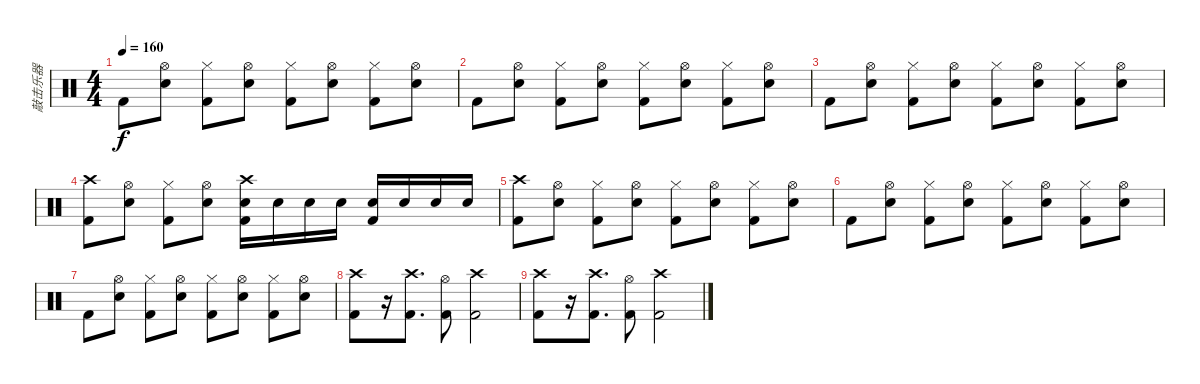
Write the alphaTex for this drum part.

\track ("敲击乐器" "敲击乐器") {instrument percussion}
\staff {score}
\articulation defaults
\ts (4 4)
\tempo 160
\clef neutral
\ks c "Kick (hit) 2".8{dy f}
("Hi-Hat (open)" "Electric Snare (hit)").8 ("Hi-Hat (closed)" "Kick (hit) 2").8 ("Hi-Hat (open)" "Electric Snare (hit)").8 ("Hi-Hat (closed)" "Kick (hit) 2").8 ("Hi-Hat (open)" "Electric Snare (hit)").8 ("Hi-Hat (closed)" "Kick (hit) 2").8 ("Hi-Hat (open)" "Electric Snare (hit)").8 |
"Kick (hit) 2".8 ("Hi-Hat (open)" "Electric Snare (hit)").8 ("Hi-Hat (closed)" "Kick (hit) 2").8 ("Hi-Hat (open)" "Electric Snare (hit)").8 ("Hi-Hat (closed)" "Kick (hit) 2").8 ("Hi-Hat (open)" "Electric Snare (hit)").8 ("Hi-Hat (closed)" "Kick (hit) 2").8 ("Hi-Hat (open)" "Electric Snare (hit)").8 |
"Kick (hit) 2".8 ("Hi-Hat (open)" "Electric Snare (hit)").8 ("Hi-Hat (closed)" "Kick (hit) 2").8 ("Hi-Hat (open)" "Electric Snare (hit)").8 ("Hi-Hat (closed)" "Kick (hit) 2").8 ("Hi-Hat (open)" "Electric Snare (hit)").8 ("Hi-Hat (closed)" "Kick (hit) 2").8 ("Hi-Hat (open)" "Electric Snare (hit)").8 |
("Crash high (hit)" "Kick (hit) 2").8 ("Hi-Hat (open)" "Electric Snare (hit)").8 ("Hi-Hat (closed)" "Kick (hit) 2").8 ("Hi-Hat (open)" "Electric Snare (hit)").8 ("Crash high (hit)" "Electric Snare (hit)" "Kick (hit) 2").16 "Electric Snare (hit)".16 "Electric Snare (hit)".16 "Electric Snare (hit)".16 ("Electric Snare (hit)" "Kick (hit) 2").16 "Electric Snare (hit)".16 "Electric Snare (hit)".16 "Electric Snare (hit)".16 |
("Crash high (hit)" "Kick (hit) 2").8 ("Hi-Hat (open)" "Electric Snare (hit)").8 ("Hi-Hat (closed)" "Kick (hit) 2").8 ("Hi-Hat (open)" "Electric Snare (hit)").8 ("Hi-Hat (closed)" "Kick (hit) 2").8 ("Hi-Hat (open)" "Electric Snare (hit)").8 ("Hi-Hat (closed)" "Kick (hit) 2").8 ("Hi-Hat (open)" "Electric Snare (hit)").8 |
"Kick (hit) 2".8 ("Hi-Hat (open)" "Electric Snare (hit)").8 ("Hi-Hat (closed)" "Kick (hit) 2").8 ("Hi-Hat (open)" "Electric Snare (hit)").8 ("Hi-Hat (closed)" "Kick (hit) 2").8 ("Hi-Hat (open)" "Electric Snare (hit)").8 ("Hi-Hat (closed)" "Kick (hit) 2").8 ("Hi-Hat (open)" "Electric Snare (hit)").8 |
"Kick (hit) 2".8 ("Hi-Hat (open)" "Electric Snare (hit)").8 ("Hi-Hat (closed)" "Kick (hit) 2").8 ("Hi-Hat (open)" "Electric Snare (hit)").8 ("Hi-Hat (closed)" "Kick (hit) 2").8 ("Hi-Hat (open)" "Electric Snare (hit)").8 ("Hi-Hat (closed)" "Kick (hit) 2").8 ("Hi-Hat (open)" "Electric Snare (hit)").8 |
("Crash high (hit)" "Kick (hit) 2").8 r.16 ("Crash high (hit)" "Kick (hit) 2").8{d} ("Hi-Hat (open)" "Kick (hit) 2").8 ("Crash high (hit)" "Kick (hit) 2").2 |
("Crash high (hit)" "Kick (hit) 2").8 r.16 ("Crash high (hit)" "Kick (hit) 2").8{d} ("Hi-Hat (open)" "Kick (hit) 2").8 ("Crash high (hit)" "Kick (hit) 2").2
